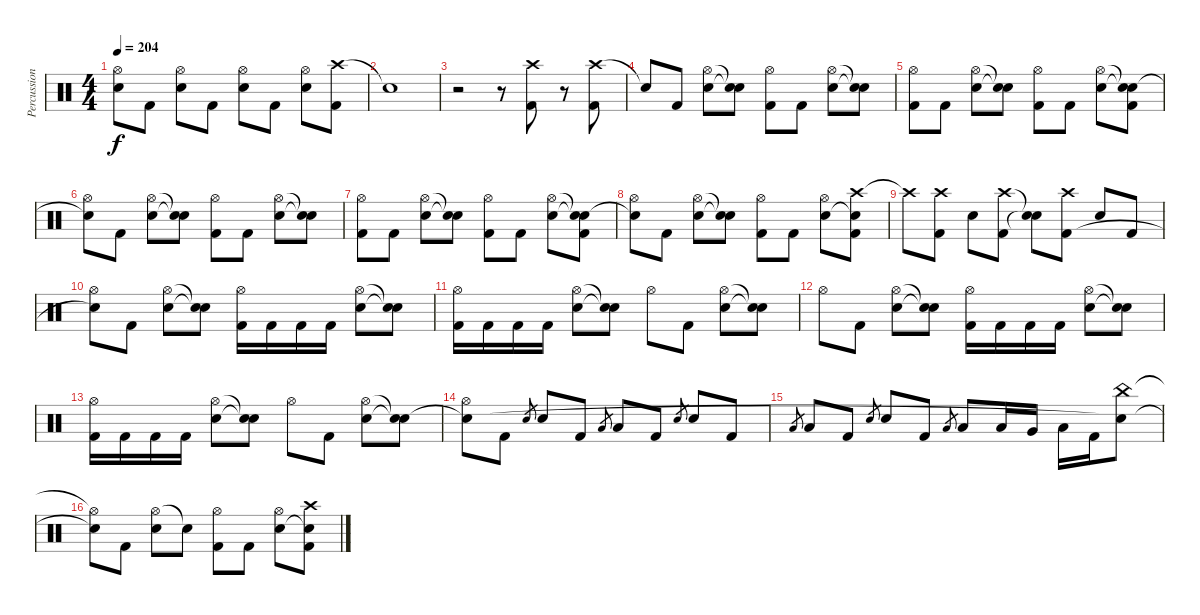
\track ("Percussion" "Percussion") {instrument percussion}
\staff {score}
\articulation defaults
\ts (4 4)
\tempo 204
\clef neutral
\ks c
("Hi-Hat (open)" "Electric Snare (hit)").8{dy f} "Kick (hit) 2".8 ("Hi-Hat (open)" "Electric Snare (hit)").8 "Kick (hit) 2".8 ("Hi-Hat (open)" "Electric Snare (hit)").8 "Kick (hit) 2".8 ("Hi-Hat (open)" "Electric Snare (hit)").8 ("Crash high (hit)" "Kick (hit) 2").8 |
"Snare (hit)"{t}.1 |
r.2 r.8 ("Crash high (hit)" "Kick (hit) 2").8 r.8 ("Crash high (hit)" "Kick (hit) 2").8 |
"Snare (hit)"{t}.8 "Kick (hit) 2".8 ("Hi-Hat (open)" "Electric Snare (hit)").8 ("Snare (hit)"{t} "Snare (hit)"{t}).8 ("Hi-Hat (open)" "Kick (hit) 2").8 "Kick (hit) 2".8 ("Hi-Hat (open)" "Electric Snare (hit)").8 ("Snare (hit)"{t} "Snare (hit)"{t}).8 |
("Hi-Hat (open)" "Kick (hit) 2").8 "Kick (hit) 2".8 ("Hi-Hat (open)" "Electric Snare (hit)").8 ("Snare (hit)"{t} "Snare (hit)"{t}).8 ("Hi-Hat (open)" "Kick (hit) 2").8 "Kick (hit) 2".8 ("Hi-Hat (open)" "Electric Snare (hit)").8 ("Snare (hit)"{t} "Snare (hit)"{t} "Kick (hit) 2").8 |
("Hi-Hat (open)" "Snare (hit)"{t}).8 "Kick (hit) 2".8 ("Hi-Hat (open)" "Electric Snare (hit)").8 ("Snare (hit)"{t} "Snare (hit)"{t}).8 ("Hi-Hat (open)" "Kick (hit) 2").8 "Kick (hit) 2".8 ("Hi-Hat (open)" "Electric Snare (hit)").8 ("Snare (hit)"{t} "Snare (hit)"{t}).8 |
("Hi-Hat (open)" "Kick (hit) 2").8 "Kick (hit) 2".8 ("Hi-Hat (open)" "Electric Snare (hit)").8 ("Snare (hit)"{t} "Snare (hit)"{t}).8 ("Hi-Hat (open)" "Kick (hit) 2").8 "Kick (hit) 2".8 ("Hi-Hat (open)" "Electric Snare (hit)").8 ("Snare (hit)"{t} "Snare (hit)"{t} "Kick (hit) 2").8 |
("Hi-Hat (open)" "Snare (hit)"{t}).8 "Kick (hit) 2".8 ("Hi-Hat (open)" "Electric Snare (hit)").8 ("Snare (hit)"{t} "Snare (hit)"{t}).8 ("Hi-Hat (open)" "Kick (hit) 2").8 "Kick (hit) 2".8 ("Hi-Hat (open)" "Electric Snare (hit)").8 ("Crash high (hit)" "Snare (hit)"{t} "Kick (hit) 2").8 |
"Crash high (hit)"{t}.8 ("Crash high (hit)" "Kick (hit) 2").8 "Electric Snare (hit)".8 ("Crash high (hit)" "Kick (hit) 2").8 ("Snare (hit)"{t} "Snare (hit)"{t}).8 ("Crash high (hit)" "Kick (hit) 2").8 "Electric Snare (hit)".8 "Kick (hit) 2".8 |
("Hi-Hat (open)" "Snare (hit)"{t}).8 "Kick (hit) 2".8 ("Hi-Hat (open)" "Electric Snare (hit)").8 ("Snare (hit)"{t} "Snare (hit)"{t}).8 ("Hi-Hat (open)" "Kick (hit) 2").16 "Kick (hit) 2".16 "Kick (hit) 2".16 "Kick (hit) 2".16 ("Hi-Hat (open)" "Electric Snare (hit)").8 ("Snare (hit)"{t} "Snare (hit)"{t}).8 |
("Hi-Hat (open)" "Kick (hit) 2").16 "Kick (hit) 2".16 "Kick (hit) 2".16 "Kick (hit) 2".16 ("Hi-Hat (open)" "Electric Snare (hit)").8 ("Snare (hit)"{t} "Snare (hit)"{t}).8 "Hi-Hat (open)".8 "Kick (hit) 2".8 ("Hi-Hat (open)" "Electric Snare (hit)").8 ("Snare (hit)"{t} "Snare (hit)"{t}).8 |
"Hi-Hat (open)".8 "Kick (hit) 2".8 ("Hi-Hat (open)" "Electric Snare (hit)").8 ("Snare (hit)"{t} "Snare (hit)"{t}).8 ("Hi-Hat (open)" "Kick (hit) 2").16 "Kick (hit) 2".16 "Kick (hit) 2".16 "Kick (hit) 2".16 ("Hi-Hat (open)" "Electric Snare (hit)").8 ("Snare (hit)"{t} "Snare (hit)"{t}).8 |
("Hi-Hat (open)" "Kick (hit) 2").16 "Kick (hit) 2".16 "Kick (hit) 2".16 "Kick (hit) 2".16 ("Hi-Hat (open)" "Electric Snare (hit)").8 ("Snare (hit)"{t} "Snare (hit)"{t}).8 "Hi-Hat (open)".8 "Kick (hit) 2".8 ("Hi-Hat (open)" "Electric Snare (hit)").8 ("Snare (hit)"{t} "Snare (hit)"{t}).8 |
("Hi-Hat (open)" "Snare (hit)"{t}).8 "Kick (hit) 2".8 "Snare (hit) 2".8{gr} "Electric Snare (hit)".8 "Kick (hit) 2".8 "Low Tom (hit)".8{gr} "Low Tom (hit)".8 "Kick (hit) 2".8 "Snare (hit) 2".8{gr} "Electric Snare (hit)".8 "Kick (hit) 2".8 |
"Low Tom (hit)".8{gr} "Low Tom (hit)".8 "Kick (hit) 2".8 "Snare (hit) 2".8{gr} "Electric Snare (hit)".8 "Kick (hit) 2".8 "Low Tom (hit)".8{gr} "Low Tom (hit)".8 "Low Tom (hit)".16 "Very Low Tom (hit)".16 "Low Floor Tom (hit)".16 "Kick (hit) 2".16 ("China (hit)" "Snare (hit)"{t}).8 |
("Hi-Hat (open)"{t} "Snare (hit)"{t}).8 "Kick (hit) 2".8 ("Hi-Hat (open)" "Electric Snare (hit)").8 "Snare (hit)"{t}.8 ("Hi-Hat (open)" "Kick (hit) 2").8 "Kick (hit) 2".8 ("Hi-Hat (open)" "Electric Snare (hit)").8 ("Crash high (hit)" "Snare (hit)"{t} "Kick (hit) 2").8
